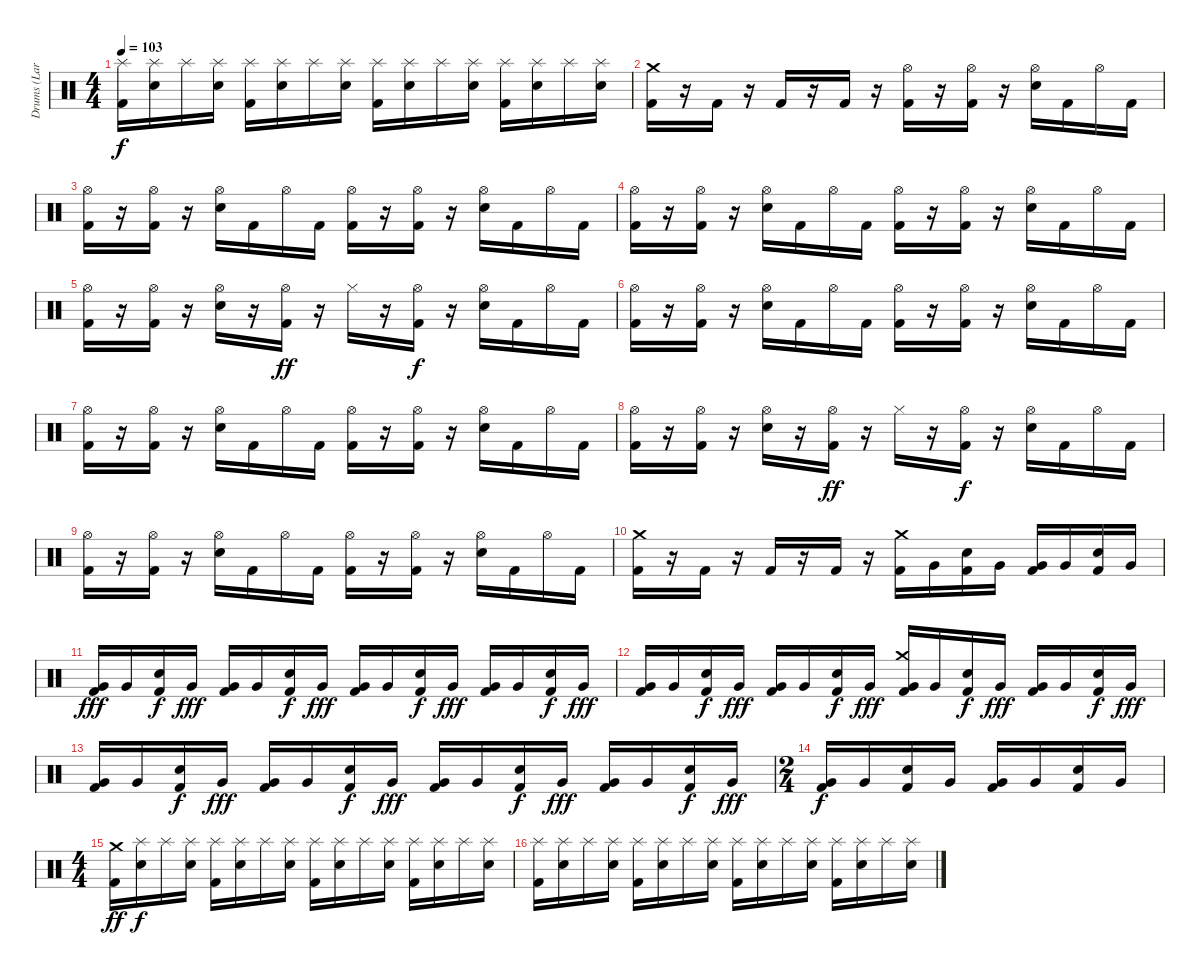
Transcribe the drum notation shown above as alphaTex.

\track ("Drums (Lars)" "Drums (Lar") {instrument percussion}
\staff {score}
\articulation defaults
\ts (4 4)
\tempo 103
\clef neutral
\ks c
("Splash (hit)" "Kick (hit) 2").16{dy f} ("Splash (hit)" "Snare (hit) 2").16 "Splash (hit)".16 ("Splash (hit)" "Snare (hit) 2").16 ("Splash (hit)" "Kick (hit) 2").16 ("Splash (hit)" "Snare (hit) 2").16 "Splash (hit)".16 ("Splash (hit)" "Snare (hit) 2").16 ("Splash (hit)" "Kick (hit) 2").16 ("Splash (hit)" "Snare (hit) 2").16 "Splash (hit)".16 ("Splash (hit)" "Snare (hit) 2").16 ("Splash (hit)" "Kick (hit) 2").16 ("Splash (hit)" "Snare (hit) 2").16 "Splash (hit)".16 ("Splash (hit)" "Snare (hit) 2").16 |
("Crash medium (hit)" "Kick (hit) 2").16 r.16 "Kick (hit) 2".16 r.16 "Kick (hit) 2".16 r.16 "Kick (hit) 2".16 r.16 ("Hi-Hat (open)" "Kick (hit) 2").16 r.16 ("Hi-Hat (open)" "Kick (hit) 2").16 r.16 ("Hi-Hat (open)" "Snare (hit) 2").16 "Kick (hit) 2".16 "Hi-Hat (open)".16 "Kick (hit) 2".16 |
("Hi-Hat (open)" "Kick (hit) 2").16 r.16 ("Hi-Hat (open)" "Kick (hit) 2").16 r.16 ("Hi-Hat (open)" "Snare (hit) 2").16 "Kick (hit) 2".16 "Hi-Hat (open)".16 "Kick (hit) 2".16 ("Hi-Hat (open)" "Kick (hit) 2").16 r.16 ("Hi-Hat (open)" "Kick (hit) 2").16 r.16 ("Hi-Hat (open)" "Snare (hit) 2").16 "Kick (hit) 2".16 "Hi-Hat (open)".16 "Kick (hit) 2".16 |
("Hi-Hat (open)" "Kick (hit) 2").16 r.16 ("Hi-Hat (open)" "Kick (hit) 2").16 r.16 ("Hi-Hat (open)" "Snare (hit) 2").16 "Kick (hit) 2".16 "Hi-Hat (open)".16 "Kick (hit) 2".16 ("Hi-Hat (open)" "Kick (hit) 2").16 r.16 ("Hi-Hat (open)" "Kick (hit) 2").16 r.16 ("Hi-Hat (open)" "Snare (hit) 2").16 "Kick (hit) 2".16 "Hi-Hat (open)".16 "Kick (hit) 2".16 |
("Hi-Hat (open)" "Kick (hit) 2").16 r.16 ("Hi-Hat (open)" "Kick (hit) 2").16 r.16 ("Hi-Hat (open)" "Snare (hit) 2").16 r.16 ("Hi-Hat (open)" "Kick (hit) 2").16{dy ff} r.16 "Hi-Hat (closed)".16 r.16 ("Hi-Hat (open)" "Kick (hit) 2").16{dy f} r.16 ("Hi-Hat (open)" "Snare (hit) 2").16 "Kick (hit) 2".16 "Hi-Hat (open)".16 "Kick (hit) 2".16 |
("Hi-Hat (open)" "Kick (hit) 2").16 r.16 ("Hi-Hat (open)" "Kick (hit) 2").16 r.16 ("Hi-Hat (open)" "Snare (hit) 2").16 "Kick (hit) 2".16 "Hi-Hat (open)".16 "Kick (hit) 2".16 ("Hi-Hat (open)" "Kick (hit) 2").16 r.16 ("Hi-Hat (open)" "Kick (hit) 2").16 r.16 ("Hi-Hat (open)" "Snare (hit) 2").16 "Kick (hit) 2".16 "Hi-Hat (open)".16 "Kick (hit) 2".16 |
("Hi-Hat (open)" "Kick (hit) 2").16 r.16 ("Hi-Hat (open)" "Kick (hit) 2").16 r.16 ("Hi-Hat (open)" "Snare (hit) 2").16 "Kick (hit) 2".16 "Hi-Hat (open)".16 "Kick (hit) 2".16 ("Hi-Hat (open)" "Kick (hit) 2").16 r.16 ("Hi-Hat (open)" "Kick (hit) 2").16 r.16 ("Hi-Hat (open)" "Snare (hit) 2").16 "Kick (hit) 2".16 "Hi-Hat (open)".16 "Kick (hit) 2".16 |
("Hi-Hat (open)" "Kick (hit) 2").16 r.16 ("Hi-Hat (open)" "Kick (hit) 2").16 r.16 ("Hi-Hat (open)" "Snare (hit) 2").16 r.16 ("Hi-Hat (open)" "Kick (hit) 2").16{dy ff} r.16 "Hi-Hat (closed)".16 r.16 ("Hi-Hat (open)" "Kick (hit) 2").16{dy f} r.16 ("Hi-Hat (open)" "Snare (hit) 2").16 "Kick (hit) 2".16 "Hi-Hat (open)".16 "Kick (hit) 2".16 |
("Hi-Hat (open)" "Kick (hit) 2").16 r.16 ("Hi-Hat (open)" "Kick (hit) 2").16 r.16 ("Hi-Hat (open)" "Snare (hit) 2").16 "Kick (hit) 2".16 "Hi-Hat (open)".16 "Kick (hit) 2".16 ("Hi-Hat (open)" "Kick (hit) 2").16 r.16 ("Hi-Hat (open)" "Kick (hit) 2").16 r.16 ("Hi-Hat (open)" "Snare (hit) 2").16 "Kick (hit) 2".16 "Hi-Hat (open)".16 "Kick (hit) 2".16 |
("Crash medium (hit)" "Kick (hit) 2").16 r.16 "Kick (hit) 2".16 r.16 "Kick (hit) 2".16 r.16 "Kick (hit) 2".16 r.16 ("Crash medium (hit)" "Kick (hit) 2").16 "Very Low Tom (hit)".16 ("Snare (hit) 2" "Kick (hit) 2").16 "Very Low Tom (hit)".16 ("Very Low Tom (hit)" "Kick (hit) 2").16 "Very Low Tom (hit)".16 ("Snare (hit) 2" "Kick (hit) 2").16 "Very Low Tom (hit)".16 |
("Very Low Tom (hit)" "Kick (hit) 2").16{dy fff} "Very Low Tom (hit)".16 ("Snare (hit) 2" "Kick (hit) 2").16{dy f} "Very Low Tom (hit)".16{dy fff} ("Very Low Tom (hit)" "Kick (hit) 2").16 "Very Low Tom (hit)".16 ("Snare (hit) 2" "Kick (hit) 2").16{dy f} "Very Low Tom (hit)".16{dy fff} ("Very Low Tom (hit)" "Kick (hit) 2").16 "Very Low Tom (hit)".16 ("Snare (hit) 2" "Kick (hit) 2").16{dy f} "Very Low Tom (hit)".16{dy fff} ("Very Low Tom (hit)" "Kick (hit) 2").16 "Very Low Tom (hit)".16 ("Snare (hit) 2" "Kick (hit) 2").16{dy f} "Very Low Tom (hit)".16{dy fff} |
("Very Low Tom (hit)" "Kick (hit) 2").16 "Very Low Tom (hit)".16 ("Snare (hit) 2" "Kick (hit) 2").16{dy f} "Very Low Tom (hit)".16{dy fff} ("Very Low Tom (hit)" "Kick (hit) 2").16 "Very Low Tom (hit)".16 ("Snare (hit) 2" "Kick (hit) 2").16{dy f} "Very Low Tom (hit)".16{dy fff} ("Crash medium (hit)" "Very Low Tom (hit)" "Kick (hit) 2").16 "Very Low Tom (hit)".16 ("Snare (hit) 2" "Kick (hit) 2").16{dy f} "Very Low Tom (hit)".16{dy fff} ("Very Low Tom (hit)" "Kick (hit) 2").16 "Very Low Tom (hit)".16 ("Snare (hit) 2" "Kick (hit) 2").16{dy f} "Very Low Tom (hit)".16{dy fff} |
("Very Low Tom (hit)" "Kick (hit) 2").16 "Very Low Tom (hit)".16 ("Snare (hit) 2" "Kick (hit) 2").16{dy f} "Very Low Tom (hit)".16{dy fff} ("Very Low Tom (hit)" "Kick (hit) 2").16 "Very Low Tom (hit)".16 ("Snare (hit) 2" "Kick (hit) 2").16{dy f} "Very Low Tom (hit)".16{dy fff} ("Very Low Tom (hit)" "Kick (hit) 2").16 "Very Low Tom (hit)".16 ("Snare (hit) 2" "Kick (hit) 2").16{dy f} "Very Low Tom (hit)".16{dy fff} ("Very Low Tom (hit)" "Kick (hit) 2").16 "Very Low Tom (hit)".16 ("Snare (hit) 2" "Kick (hit) 2").16{dy f} "Very Low Tom (hit)".16{dy fff} |
\ts (2 4)
("Very Low Tom (hit)" "Kick (hit) 2").16{dy f} "Very Low Tom (hit)".16 ("Snare (hit) 2" "Kick (hit) 2").16 "Very Low Tom (hit)".16 ("Very Low Tom (hit)" "Kick (hit) 2").16 "Very Low Tom (hit)".16 ("Snare (hit) 2" "Kick (hit) 2").16 "Very Low Tom (hit)".16 |
\ts (4 4)
("Crash medium (hit)" "Kick (hit) 2").16{dy ff} ("Splash (hit)" "Snare (hit) 2").16{dy f} "Splash (hit)".16 ("Splash (hit)" "Snare (hit) 2").16 ("Splash (hit)" "Kick (hit) 2").16 ("Splash (hit)" "Snare (hit) 2").16 "Splash (hit)".16 ("Splash (hit)" "Snare (hit) 2").16 ("Splash (hit)" "Kick (hit) 2").16 ("Splash (hit)" "Snare (hit) 2").16 "Splash (hit)".16 ("Splash (hit)" "Snare (hit) 2").16 ("Splash (hit)" "Kick (hit) 2").16 ("Splash (hit)" "Snare (hit) 2").16 "Splash (hit)".16 ("Splash (hit)" "Snare (hit) 2").16 |
("Splash (hit)" "Kick (hit) 2").16 ("Splash (hit)" "Snare (hit) 2").16 "Splash (hit)".16 ("Splash (hit)" "Snare (hit) 2").16 ("Splash (hit)" "Kick (hit) 2").16 ("Splash (hit)" "Snare (hit) 2").16 "Splash (hit)".16 ("Splash (hit)" "Snare (hit) 2").16 ("Splash (hit)" "Kick (hit) 2").16 ("Splash (hit)" "Snare (hit) 2").16 "Splash (hit)".16 ("Splash (hit)" "Snare (hit) 2").16 ("Splash (hit)" "Kick (hit) 2").16 ("Splash (hit)" "Snare (hit) 2").16 "Splash (hit)".16 ("Splash (hit)" "Snare (hit) 2").16
